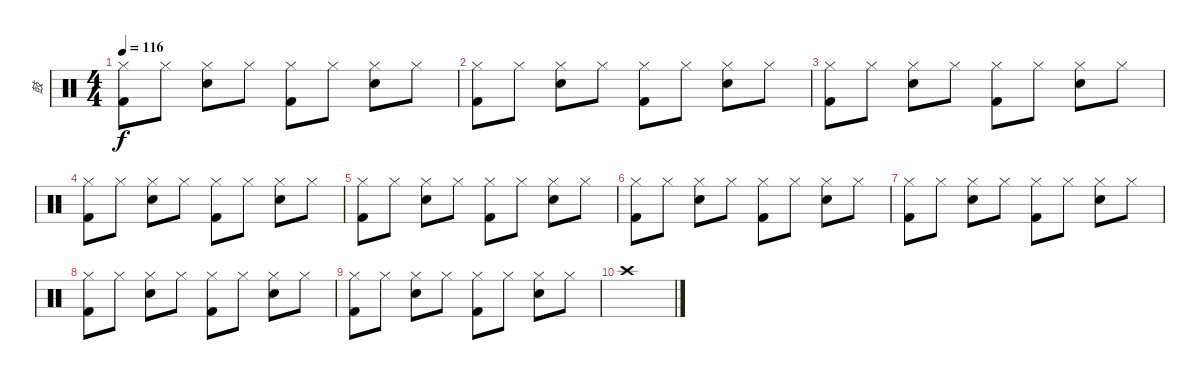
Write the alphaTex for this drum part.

\track ("鼓" "鼓") {instrument percussion}
\staff {score}
\articulation defaults
\ts (4 4)
\tempo 116
\clef neutral
\ks c
("Kick (hit) 2" "Hi-Hat (closed)").8{dy f} "Hi-Hat (closed)".8 ("Snare (hit) 2" "Hi-Hat (closed)").8 "Hi-Hat (closed)".8 ("Kick (hit) 2" "Hi-Hat (closed)").8 "Hi-Hat (closed)".8 ("Snare (hit) 2" "Hi-Hat (closed)").8 "Hi-Hat (closed)".8 |
("Kick (hit) 2" "Hi-Hat (closed)").8 "Hi-Hat (closed)".8 ("Snare (hit) 2" "Hi-Hat (closed)").8 "Hi-Hat (closed)".8 ("Kick (hit) 2" "Hi-Hat (closed)").8 "Hi-Hat (closed)".8 ("Snare (hit) 2" "Hi-Hat (closed)").8 "Hi-Hat (closed)".8 |
("Kick (hit) 2" "Hi-Hat (closed)").8 "Hi-Hat (closed)".8 ("Snare (hit) 2" "Hi-Hat (closed)").8 "Hi-Hat (closed)".8 ("Kick (hit) 2" "Hi-Hat (closed)").8 "Hi-Hat (closed)".8 ("Snare (hit) 2" "Hi-Hat (closed)").8 "Hi-Hat (closed)".8 |
("Kick (hit) 2" "Hi-Hat (closed)").8 "Hi-Hat (closed)".8 ("Snare (hit) 2" "Hi-Hat (closed)").8 "Hi-Hat (closed)".8 ("Kick (hit) 2" "Hi-Hat (closed)").8 "Hi-Hat (closed)".8 ("Snare (hit) 2" "Hi-Hat (closed)").8 "Hi-Hat (closed)".8 |
("Kick (hit) 2" "Hi-Hat (closed)").8 "Hi-Hat (closed)".8 ("Snare (hit) 2" "Hi-Hat (closed)").8 "Hi-Hat (closed)".8 ("Kick (hit) 2" "Hi-Hat (closed)").8 "Hi-Hat (closed)".8 ("Snare (hit) 2" "Hi-Hat (closed)").8 "Hi-Hat (closed)".8 |
("Kick (hit) 2" "Hi-Hat (closed)").8 "Hi-Hat (closed)".8 ("Snare (hit) 2" "Hi-Hat (closed)").8 "Hi-Hat (closed)".8 ("Kick (hit) 2" "Hi-Hat (closed)").8 "Hi-Hat (closed)".8 ("Snare (hit) 2" "Hi-Hat (closed)").8 "Hi-Hat (closed)".8 |
("Kick (hit) 2" "Hi-Hat (closed)").8 "Hi-Hat (closed)".8 ("Snare (hit) 2" "Hi-Hat (closed)").8 "Hi-Hat (closed)".8 ("Kick (hit) 2" "Hi-Hat (closed)").8 "Hi-Hat (closed)".8 ("Snare (hit) 2" "Hi-Hat (closed)").8 "Hi-Hat (closed)".8 |
("Kick (hit) 2" "Hi-Hat (closed)").8 "Hi-Hat (closed)".8 ("Snare (hit) 2" "Hi-Hat (closed)").8 "Hi-Hat (closed)".8 ("Kick (hit) 2" "Hi-Hat (closed)").8 "Hi-Hat (closed)".8 ("Snare (hit) 2" "Hi-Hat (closed)").8 "Hi-Hat (closed)".8 |
("Kick (hit) 2" "Hi-Hat (closed)").8 "Hi-Hat (closed)".8 ("Snare (hit) 2" "Hi-Hat (closed)").8 "Hi-Hat (closed)".8 ("Kick (hit) 2" "Hi-Hat (closed)").8 "Hi-Hat (closed)".8 ("Snare (hit) 2" "Hi-Hat (closed)").8 "Hi-Hat (closed)".8 |
"Crash high (hit)".1
